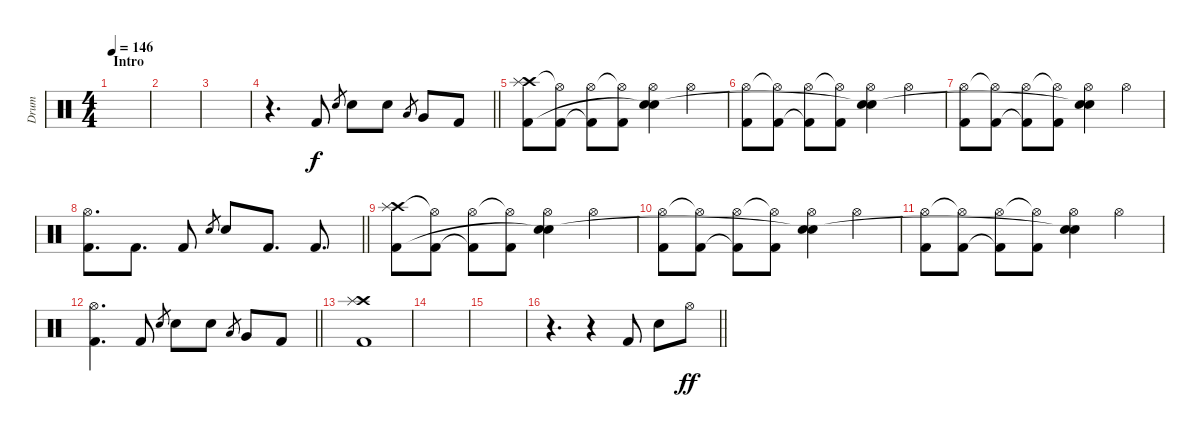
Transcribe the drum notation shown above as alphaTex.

\track ("Drum" "Drum") {instrument percussion}
\staff {score}
\articulation defaults
\ts (4 4)
\section ("" "Intro")
\tempo 146
\clef neutral
\ks c
|
|
|
\barLineRight lightlight
r.4{d} "Kick (hit) 2".8 "Electric Snare (hit)".8{gr} "Electric Snare (hit)".8 "Electric Snare (hit)".8 "Low Floor Tom (hit)".8{gr} "Very Low Tom (hit)".8 "Kick (hit) 2".8 |
("Crash high (hit)" "Splash (hit)" "Kick (hit) 2").8 ("Hi-Hat (open)"{t} "Kick (hit) 2").8 ("Hi-Hat (open)" "Kick (hit) 2"{t}).8 ("Hi-Hat (open)"{t} "Kick (hit) 2").8 ("Hi-Hat (open)" "Electric Snare (hit)" "Snare (hit)"{t}).4 "Hi-Hat (open)".4 |
("Hi-Hat (open)" "Kick (hit) 2").8 ("Hi-Hat (open)"{t} "Kick (hit) 2").8 ("Hi-Hat (open)" "Kick (hit) 2"{t}).8 ("Hi-Hat (open)"{t} "Kick (hit) 2").8 ("Hi-Hat (open)" "Electric Snare (hit)" "Snare (hit)"{t}).4 "Hi-Hat (open)".4 |
("Hi-Hat (open)" "Kick (hit) 2").8 ("Hi-Hat (open)"{t} "Kick (hit) 2").8 ("Hi-Hat (open)" "Kick (hit) 2"{t}).8 ("Hi-Hat (open)"{t} "Kick (hit) 2").8 ("Hi-Hat (open)" "Electric Snare (hit)" "Snare (hit)"{t}).4 "Hi-Hat (open)".4 |
\barLineRight lightlight
("Hi-Hat (open)" "Kick (hit) 2").8{d} "Kick (hit) 2".8{d} "Kick (hit) 2".8 "Electric Snare (hit)".8{gr} "Electric Snare (hit)".8 "Kick (hit) 2".8{d} "Kick (hit) 2".8{d} |
("Crash high (hit)" "Splash (hit)" "Kick (hit) 2").8 ("Hi-Hat (open)"{t} "Kick (hit) 2").8 ("Hi-Hat (open)" "Kick (hit) 2"{t}).8 ("Hi-Hat (open)"{t} "Kick (hit) 2").8 ("Hi-Hat (open)" "Electric Snare (hit)" "Snare (hit)"{t}).4 "Hi-Hat (open)".4 |
("Hi-Hat (open)" "Kick (hit) 2").8 ("Hi-Hat (open)"{t} "Kick (hit) 2").8 ("Hi-Hat (open)" "Kick (hit) 2"{t}).8 ("Hi-Hat (open)"{t} "Kick (hit) 2").8 ("Hi-Hat (open)" "Electric Snare (hit)" "Snare (hit)"{t}).4 "Hi-Hat (open)".4 |
("Hi-Hat (open)" "Kick (hit) 2").8 ("Hi-Hat (open)"{t} "Kick (hit) 2").8 ("Hi-Hat (open)" "Kick (hit) 2"{t}).8 ("Hi-Hat (open)"{t} "Kick (hit) 2").8 ("Hi-Hat (open)" "Electric Snare (hit)" "Snare (hit)"{t}).4 "Hi-Hat (open)".4 |
\barLineRight lightlight
("Hi-Hat (open)" "Kick (hit) 2").4{d} "Kick (hit) 2".8 "Electric Snare (hit)".8{gr} "Electric Snare (hit)".8 "Electric Snare (hit)".8 "Low Floor Tom (hit)".8{gr} "Very Low Tom (hit)".8 "Kick (hit) 2".8 |
("Crash high (hit)" "Splash (hit)" "Kick (hit) 2").1 |
|
|
\barLineRight lightlight
r.4{d} r.4 "Kick (hit) 2".8 "Electric Snare (hit)".8 "Hi-Hat (open)".8{dy ff}
